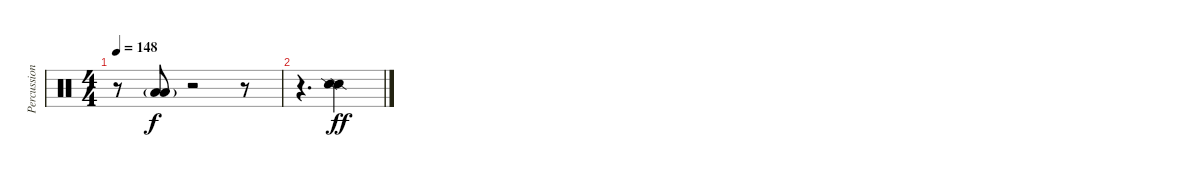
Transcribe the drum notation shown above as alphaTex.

\track ("Percussion" "Percussion") {instrument percussion}
\staff {score}
\articulation defaults
\ts (4 4)
\tempo 148
\clef neutral
\ks c
r.8{dy fff} ("Low Floor Tom (hit)"{g} "Low Floor Tom (hit)"{g}).8{bd 480 dy f} r.2 r.8 |
r.4{d} ("Snare (side stick) 2" "Snare (side stick) 2").2{bd 480 dy ff}
